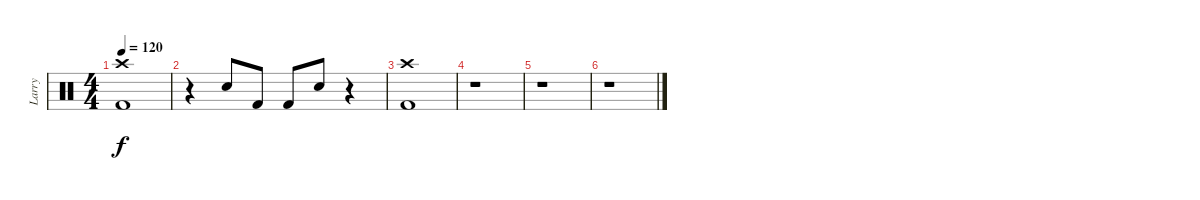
\track ("Larry" "Larry") {instrument percussion}
\staff {score}
\articulation defaults
\ts (4 4)
\tempo 120
\clef neutral
\ks c
("Crash high (hit)" "Kick (hit) 2").1{dy f} |
r.4 "Snare (hit) 2".8 "Kick (hit) 2".8 "Kick (hit) 2".8 "Snare (hit) 2".8 r.4 |
("Crash high (hit)" "Kick (hit) 2").1 |
r.1 |
r.1 |
r.1
